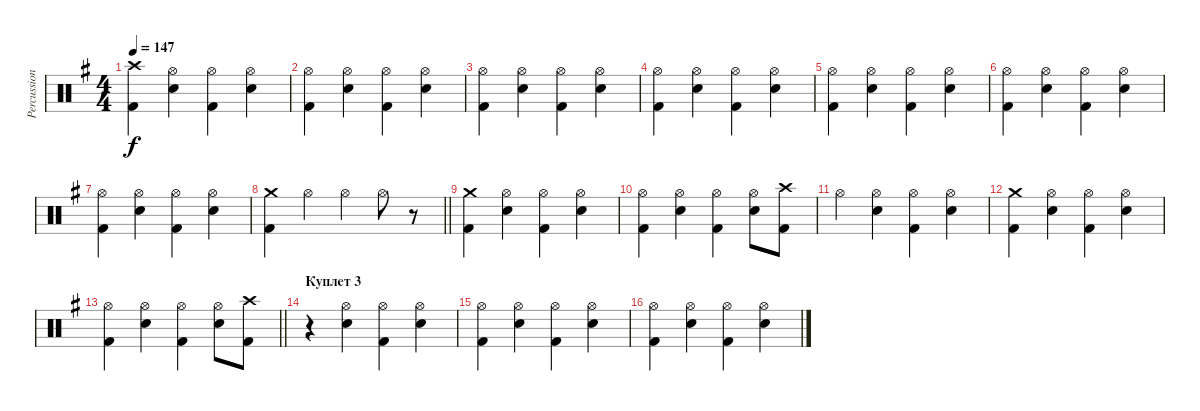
\track ("Percussion" "Percussion") {instrument percussion}
\staff {score}
\articulation defaults
\ts (4 4)
\tempo 147
\clef neutral
\ks eminor
("Crash high (hit)" "Kick (hit) 2").4{dy f} ("Hi-Hat (open)" "Snare (hit) 2").4 ("Hi-Hat (open)" "Kick (hit) 2").4 ("Hi-Hat (open)" "Snare (hit) 2").4 |
("Hi-Hat (open)" "Kick (hit) 2").4 ("Hi-Hat (open)" "Snare (hit) 2").4 ("Hi-Hat (open)" "Kick (hit) 2").4 ("Hi-Hat (open)" "Snare (hit) 2").4 |
("Hi-Hat (open)" "Kick (hit) 2").4 ("Hi-Hat (open)" "Snare (hit) 2").4 ("Hi-Hat (open)" "Kick (hit) 2").4 ("Hi-Hat (open)" "Snare (hit) 2").4 |
("Hi-Hat (open)" "Kick (hit) 2").4 ("Hi-Hat (open)" "Snare (hit) 2").4 ("Hi-Hat (open)" "Kick (hit) 2").4 ("Hi-Hat (open)" "Snare (hit) 2").4 |
("Hi-Hat (open)" "Kick (hit) 2").4 ("Hi-Hat (open)" "Snare (hit) 2").4 ("Hi-Hat (open)" "Kick (hit) 2").4 ("Hi-Hat (open)" "Snare (hit) 2").4 |
("Hi-Hat (open)" "Kick (hit) 2").4 ("Hi-Hat (open)" "Snare (hit) 2").4 ("Hi-Hat (open)" "Kick (hit) 2").4 ("Hi-Hat (open)" "Snare (hit) 2").4 |
("Hi-Hat (open)" "Kick (hit) 2").4 ("Hi-Hat (open)" "Snare (hit) 2").4 ("Hi-Hat (open)" "Kick (hit) 2").4 ("Hi-Hat (open)" "Snare (hit) 2").4 |
\barLineRight lightlight
("Crash medium (hit)" "Kick (hit) 2").4 "Hi-Hat (open)".4 "Hi-Hat (open)".4 "Hi-Hat (open)".8 r.8 |
("Crash medium (hit)" "Kick (hit) 2").4 ("Hi-Hat (open)" "Snare (hit) 2").4 ("Hi-Hat (open)" "Kick (hit) 2").4 ("Hi-Hat (open)" "Snare (hit) 2").4 |
("Hi-Hat (open)" "Kick (hit) 2").4 ("Hi-Hat (open)" "Snare (hit) 2").4 ("Hi-Hat (open)" "Kick (hit) 2").4 ("Hi-Hat (open)" "Snare (hit) 2").8 ("Crash high (hit)" "Kick (hit) 2").8 |
"Hi-Hat (open)".4 ("Hi-Hat (open)" "Snare (hit) 2").4 ("Hi-Hat (open)" "Kick (hit) 2").4 ("Hi-Hat (open)" "Snare (hit) 2").4 |
("Crash medium (hit)" "Kick (hit) 2").4 ("Hi-Hat (open)" "Snare (hit) 2").4 ("Hi-Hat (open)" "Kick (hit) 2").4 ("Hi-Hat (open)" "Snare (hit) 2").4 |
\barLineRight lightlight
("Hi-Hat (open)" "Kick (hit) 2").4 ("Hi-Hat (open)" "Snare (hit) 2").4 ("Hi-Hat (open)" "Kick (hit) 2").4 ("Hi-Hat (open)" "Snare (hit) 2").8 ("Crash high (hit)" "Kick (hit) 2").8 |
\section ("" "Куплет 3")
r.4 ("Hi-Hat (open)" "Snare (hit) 2").4 ("Hi-Hat (open)" "Kick (hit) 2").4 ("Hi-Hat (open)" "Snare (hit) 2").4 |
("Hi-Hat (open)" "Kick (hit) 2").4 ("Hi-Hat (open)" "Snare (hit) 2").4 ("Hi-Hat (open)" "Kick (hit) 2").4 ("Hi-Hat (open)" "Snare (hit) 2").4 |
("Hi-Hat (open)" "Kick (hit) 2").4 ("Hi-Hat (open)" "Snare (hit) 2").4 ("Hi-Hat (open)" "Kick (hit) 2").4 ("Hi-Hat (open)" "Snare (hit) 2").4
